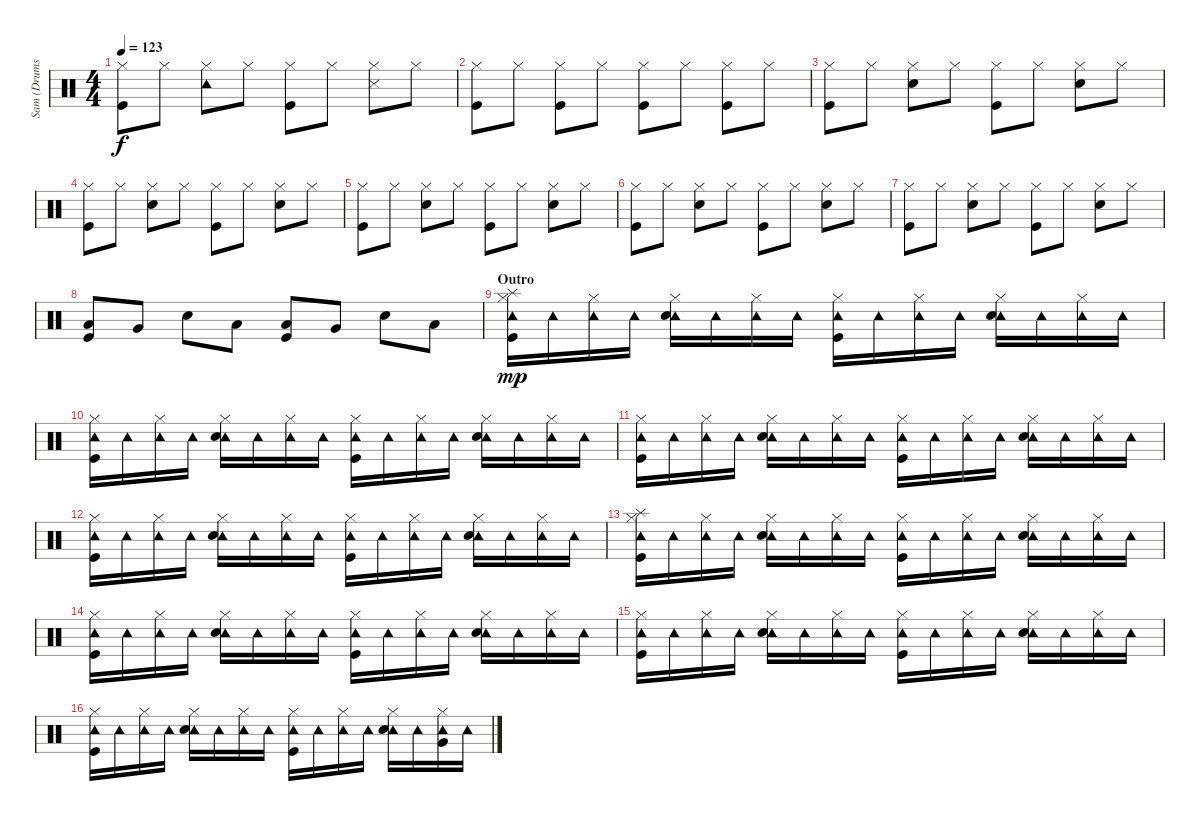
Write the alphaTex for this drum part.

\track ("Sam (Drums)" "Sam (Drums") {instrument percussion}
\staff {score}
\articulation defaults
\ts (4 4)
\tempo 123
\clef neutral
\ks c
("Hi-Hat (closed)" "Kick (hit)").8{dy f} "Hi-Hat (closed)".8 ("Hi-Hat (closed)" "Tambourine (hit)").8 "Hi-Hat (closed)".8 ("Hi-Hat (closed)" "Kick (hit)").8 "Hi-Hat (closed)".8 ("Hi-Hat (closed)" "Snare (side stick) 3").8 "Hi-Hat (closed)".8 |
("Hi-Hat (closed)" "Kick (hit)").8 "Hi-Hat (closed)".8 ("Hi-Hat (closed)" "Kick (hit)").8 "Hi-Hat (closed)".8 ("Hi-Hat (closed)" "Kick (hit)").8 "Hi-Hat (closed)".8 ("Hi-Hat (closed)" "Kick (hit)").8 "Hi-Hat (closed)".8 |
("Hi-Hat (closed)" "Kick (hit)").8 "Hi-Hat (closed)".8 ("Hi-Hat (closed)" "Snare (hit) 2").8 "Hi-Hat (closed)".8 ("Hi-Hat (closed)" "Kick (hit)").8 "Hi-Hat (closed)".8 ("Hi-Hat (closed)" "Snare (hit) 2").8 "Hi-Hat (closed)".8 |
("Hi-Hat (closed)" "Kick (hit)").8 "Hi-Hat (closed)".8 ("Hi-Hat (closed)" "Snare (hit) 2").8 "Hi-Hat (closed)".8 ("Hi-Hat (closed)" "Kick (hit)").8 "Hi-Hat (closed)".8 ("Hi-Hat (closed)" "Snare (hit) 2").8 "Hi-Hat (closed)".8 |
("Hi-Hat (closed)" "Kick (hit)").8 "Hi-Hat (closed)".8 ("Hi-Hat (closed)" "Snare (hit) 2").8 "Hi-Hat (closed)".8 ("Hi-Hat (closed)" "Kick (hit)").8 "Hi-Hat (closed)".8 ("Hi-Hat (closed)" "Snare (hit) 2").8 "Hi-Hat (closed)".8 |
("Hi-Hat (closed)" "Kick (hit)").8 "Hi-Hat (closed)".8 ("Hi-Hat (closed)" "Snare (hit) 2").8 "Hi-Hat (closed)".8 ("Hi-Hat (closed)" "Kick (hit)").8 "Hi-Hat (closed)".8 ("Hi-Hat (closed)" "Snare (hit) 2").8 "Hi-Hat (closed)".8 |
("Hi-Hat (closed)" "Kick (hit)").8 "Hi-Hat (closed)".8 ("Hi-Hat (closed)" "Snare (hit) 2").8 "Hi-Hat (closed)".8 ("Hi-Hat (closed)" "Kick (hit)").8 "Hi-Hat (closed)".8 ("Hi-Hat (closed)" "Snare (hit) 2").8 "Hi-Hat (closed)".8 |
("Low Tom (hit)" "Kick (hit)").8 "Very Low Tom (hit)".8 "Snare (hit) 2".8 "Low Floor Tom (hit)".8 ("Low Tom (hit)" "Kick (hit)").8 "Very Low Tom (hit)".8 "Snare (hit) 2".8 "Low Floor Tom (hit)".8 |
\section ("" "Outro")
("Splash (hit)" "Hi-Hat (closed)" "Tambourine (hit)" "Kick (hit)").16{dy mp} "Tambourine (hit)".16 ("Hi-Hat (closed)" "Tambourine (hit)").16 "Tambourine (hit)".16 ("Hi-Hat (closed)" "Tambourine (hit)" "Snare (hit) 2").16 "Tambourine (hit)".16 ("Hi-Hat (closed)" "Tambourine (hit)").16 "Tambourine (hit)".16 ("Hi-Hat (closed)" "Tambourine (hit)" "Kick (hit)").16 "Tambourine (hit)".16 ("Hi-Hat (closed)" "Tambourine (hit)").16 "Tambourine (hit)".16 ("Hi-Hat (closed)" "Tambourine (hit)" "Snare (hit) 2").16 "Tambourine (hit)".16 ("Hi-Hat (closed)" "Tambourine (hit)").16 "Tambourine (hit)".16 |
("Hi-Hat (closed)" "Tambourine (hit)" "Kick (hit)").16 "Tambourine (hit)".16 ("Hi-Hat (closed)" "Tambourine (hit)").16 "Tambourine (hit)".16 ("Hi-Hat (closed)" "Tambourine (hit)" "Snare (hit) 2").16 "Tambourine (hit)".16 ("Hi-Hat (closed)" "Tambourine (hit)").16 "Tambourine (hit)".16 ("Hi-Hat (closed)" "Tambourine (hit)" "Kick (hit)").16 "Tambourine (hit)".16 ("Hi-Hat (closed)" "Tambourine (hit)").16 "Tambourine (hit)".16 ("Hi-Hat (closed)" "Tambourine (hit)" "Snare (hit) 2").16 "Tambourine (hit)".16 ("Hi-Hat (closed)" "Tambourine (hit)").16 "Tambourine (hit)".16 |
("Hi-Hat (closed)" "Tambourine (hit)" "Kick (hit)").16 "Tambourine (hit)".16 ("Hi-Hat (closed)" "Tambourine (hit)").16 "Tambourine (hit)".16 ("Hi-Hat (closed)" "Tambourine (hit)" "Snare (hit) 2").16 "Tambourine (hit)".16 ("Hi-Hat (closed)" "Tambourine (hit)").16 "Tambourine (hit)".16 ("Hi-Hat (closed)" "Tambourine (hit)" "Kick (hit)").16 "Tambourine (hit)".16 ("Hi-Hat (closed)" "Tambourine (hit)").16 "Tambourine (hit)".16 ("Hi-Hat (closed)" "Tambourine (hit)" "Snare (hit) 2").16 "Tambourine (hit)".16 ("Hi-Hat (closed)" "Tambourine (hit)").16 "Tambourine (hit)".16 |
("Hi-Hat (closed)" "Tambourine (hit)" "Kick (hit)").16 "Tambourine (hit)".16 ("Hi-Hat (closed)" "Tambourine (hit)").16 "Tambourine (hit)".16 ("Hi-Hat (closed)" "Tambourine (hit)" "Snare (hit) 2").16 "Tambourine (hit)".16 ("Hi-Hat (closed)" "Tambourine (hit)").16 "Tambourine (hit)".16 ("Hi-Hat (closed)" "Tambourine (hit)" "Kick (hit)").16 "Tambourine (hit)".16 ("Hi-Hat (closed)" "Tambourine (hit)").16 "Tambourine (hit)".16 ("Hi-Hat (closed)" "Tambourine (hit)" "Snare (hit) 2").16 "Tambourine (hit)".16 ("Hi-Hat (closed)" "Tambourine (hit)").16 "Tambourine (hit)".16 |
("Splash (hit)" "Hi-Hat (closed)" "Tambourine (hit)" "Kick (hit)").16 "Tambourine (hit)".16 ("Hi-Hat (closed)" "Tambourine (hit)").16 "Tambourine (hit)".16 ("Hi-Hat (closed)" "Tambourine (hit)" "Snare (hit) 2").16 "Tambourine (hit)".16 ("Hi-Hat (closed)" "Tambourine (hit)").16 "Tambourine (hit)".16 ("Hi-Hat (closed)" "Tambourine (hit)" "Kick (hit)").16 "Tambourine (hit)".16 ("Hi-Hat (closed)" "Tambourine (hit)").16 "Tambourine (hit)".16 ("Hi-Hat (closed)" "Tambourine (hit)" "Snare (hit) 2").16 "Tambourine (hit)".16 ("Hi-Hat (closed)" "Tambourine (hit)").16 "Tambourine (hit)".16 |
("Hi-Hat (closed)" "Tambourine (hit)" "Kick (hit)").16 "Tambourine (hit)".16 ("Hi-Hat (closed)" "Tambourine (hit)").16 "Tambourine (hit)".16 ("Hi-Hat (closed)" "Tambourine (hit)" "Snare (hit) 2").16 "Tambourine (hit)".16 ("Hi-Hat (closed)" "Tambourine (hit)").16 "Tambourine (hit)".16 ("Hi-Hat (closed)" "Tambourine (hit)" "Kick (hit)").16 "Tambourine (hit)".16 ("Hi-Hat (closed)" "Tambourine (hit)").16 "Tambourine (hit)".16 ("Hi-Hat (closed)" "Tambourine (hit)" "Snare (hit) 2").16 "Tambourine (hit)".16 ("Hi-Hat (closed)" "Tambourine (hit)").16 "Tambourine (hit)".16 |
("Hi-Hat (closed)" "Tambourine (hit)" "Kick (hit)").16 "Tambourine (hit)".16 ("Hi-Hat (closed)" "Tambourine (hit)").16 "Tambourine (hit)".16 ("Hi-Hat (closed)" "Tambourine (hit)" "Snare (hit) 2").16 "Tambourine (hit)".16 ("Hi-Hat (closed)" "Tambourine (hit)").16 "Tambourine (hit)".16 ("Hi-Hat (closed)" "Tambourine (hit)" "Kick (hit)").16 "Tambourine (hit)".16 ("Hi-Hat (closed)" "Tambourine (hit)").16 "Tambourine (hit)".16 ("Hi-Hat (closed)" "Tambourine (hit)" "Snare (hit) 2").16 "Tambourine (hit)".16 ("Hi-Hat (closed)" "Tambourine (hit)").16 "Tambourine (hit)".16 |
("Hi-Hat (closed)" "Tambourine (hit)" "Kick (hit)").16 "Tambourine (hit)".16 ("Hi-Hat (closed)" "Tambourine (hit)").16 "Tambourine (hit)".16 ("Hi-Hat (closed)" "Tambourine (hit)" "Snare (hit) 2").16 "Tambourine (hit)".16 ("Hi-Hat (closed)" "Tambourine (hit)").16 "Tambourine (hit)".16 ("Hi-Hat (closed)" "Tambourine (hit)" "Kick (hit)").16 "Tambourine (hit)".16 ("Hi-Hat (closed)" "Tambourine (hit)").16 "Tambourine (hit)".16 ("Hi-Hat (closed)" "Tambourine (hit)" "Snare (hit) 2").16 "Tambourine (hit)".16 ("Hi-Hat (closed)" "Tambourine (hit)" "Very Low Tom (hit)").16 "Tambourine (hit)".16
